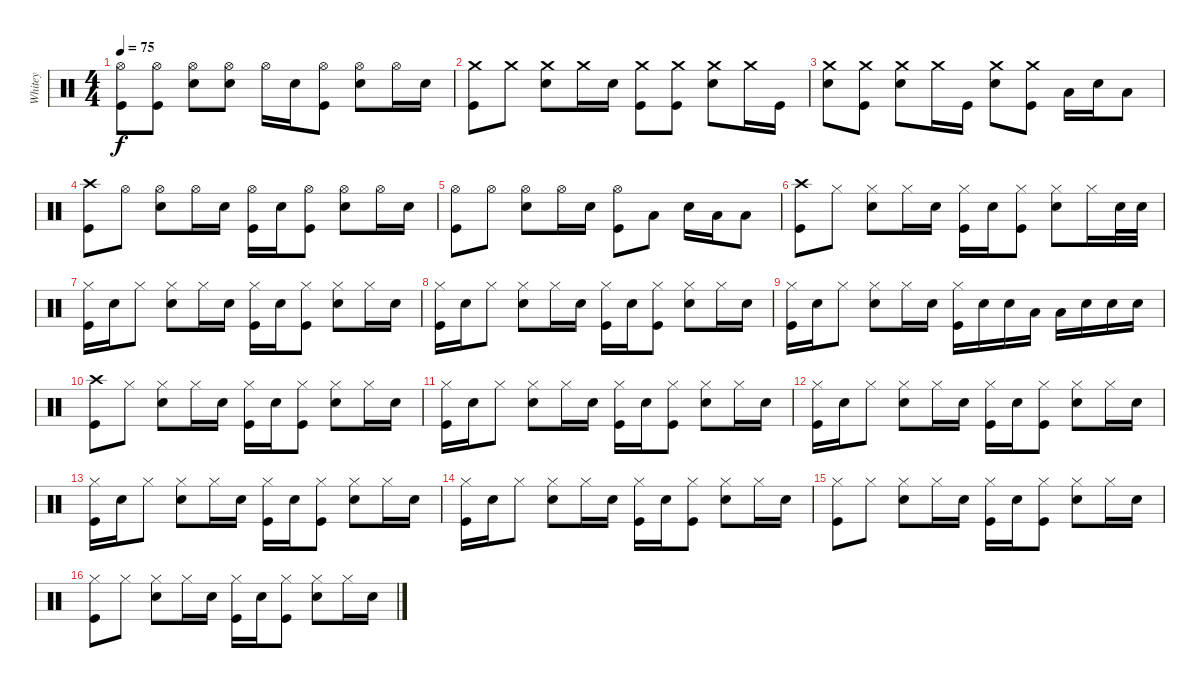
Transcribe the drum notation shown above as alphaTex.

\track ("Whitey" "Whitey") {instrument percussion}
\staff {score}
\articulation defaults
\ts (4 4)
\tempo 75
\clef neutral
\ks c
("Hi-Hat (open)" "Kick (hit)").8{dy f} ("Hi-Hat (open)" "Kick (hit)").8 ("Hi-Hat (open)" "Snare (hit) 2").8 ("Hi-Hat (open)" "Snare (hit) 2").8 "Hi-Hat (open)".16 "Snare (hit) 2".16 ("Hi-Hat (open)" "Kick (hit)").8 ("Hi-Hat (open)" "Snare (hit) 2").8 "Hi-Hat (open)".16 "Snare (hit) 2".16 |
("Crash medium (hit)" "Kick (hit)").8 "Crash medium (hit)".8 ("Crash medium (hit)" "Snare (hit) 2").8 "Crash medium (hit)".16 "Snare (hit) 2".16 ("Crash medium (hit)" "Kick (hit)").8 ("Crash medium (hit)" "Kick (hit)").8 ("Crash medium (hit)" "Snare (hit) 2").8 "Crash medium (hit)".16 "Kick (hit)".16 |
("Crash medium (hit)" "Snare (hit) 2").8 ("Crash medium (hit)" "Kick (hit)").8 ("Crash medium (hit)" "Snare (hit) 2").8 "Crash medium (hit)".16 "Kick (hit)".16 ("Crash medium (hit)" "Snare (hit) 2").8 ("Crash medium (hit)" "Kick (hit)").8 "Low Tom (hit)".16 "Snare (hit) 2".16 "Low Tom (hit)".8 |
("Crash high (hit)" "Kick (hit)").8 "Hi-Hat (open)".8 ("Hi-Hat (open)" "Snare (hit) 2").8 "Hi-Hat (open)".16 "Snare (hit) 2".16 ("Hi-Hat (open)" "Kick (hit)").16 "Snare (hit) 2".16 ("Hi-Hat (open)" "Kick (hit)").8 ("Hi-Hat (open)" "Snare (hit) 2").8 "Hi-Hat (open)".16 "Snare (hit) 2".16 |
("Hi-Hat (open)" "Kick (hit)").8 "Hi-Hat (open)".8 ("Hi-Hat (open)" "Snare (hit) 2").8 "Hi-Hat (open)".16 "Snare (hit) 2".16 ("Hi-Hat (open)" "Kick (hit)").8 "Low Tom (hit)".8 "Snare (hit) 2".16 "Low Tom (hit)".16 "Low Tom (hit)".8 |
("Crash high (hit)" "Kick (hit)").8 "Hi-Hat (closed)".8 ("Hi-Hat (closed)" "Snare (hit) 2").8 "Hi-Hat (closed)".16 "Snare (hit) 2".16 ("Hi-Hat (closed)" "Kick (hit)").16 "Snare (hit) 2".16 ("Hi-Hat (closed)" "Kick (hit)").8 ("Hi-Hat (closed)" "Snare (hit) 2").8 "Hi-Hat (closed)".16 "Snare (hit) 2".32 "Snare (hit) 2".32 |
("Hi-Hat (closed)" "Kick (hit)").16 "Snare (hit) 2".16 "Hi-Hat (closed)".8 ("Hi-Hat (closed)" "Snare (hit) 2").8 "Hi-Hat (closed)".16 "Snare (hit) 2".16 ("Hi-Hat (closed)" "Kick (hit)").16 "Snare (hit) 2".16 ("Hi-Hat (closed)" "Kick (hit)").8 ("Hi-Hat (closed)" "Snare (hit) 2").8 "Hi-Hat (closed)".16 "Snare (hit) 2".16 |
("Hi-Hat (closed)" "Kick (hit)").16 "Snare (hit) 2".16 "Hi-Hat (closed)".8 ("Hi-Hat (closed)" "Snare (hit) 2").8 "Hi-Hat (closed)".16 "Snare (hit) 2".16 ("Hi-Hat (closed)" "Kick (hit)").16 "Snare (hit) 2".16 ("Hi-Hat (closed)" "Kick (hit)").8 ("Hi-Hat (closed)" "Snare (hit) 2").8 "Hi-Hat (closed)".16 "Snare (hit) 2".16 |
("Hi-Hat (closed)" "Kick (hit)").16 "Snare (hit) 2".16 "Hi-Hat (closed)".8 ("Hi-Hat (closed)" "Snare (hit) 2").8 "Hi-Hat (closed)".16 "Snare (hit) 2".16 ("Hi-Hat (closed)" "Kick (hit)").16 "Snare (hit) 2".16 "Snare (hit) 2".16 "Low Tom (hit)".16 "Low Tom (hit)".16 "Snare (hit) 2".16 "Snare (hit) 2".16 "Snare (hit) 2".16 |
("Crash high (hit)" "Kick (hit)").8 "Hi-Hat (closed)".8 ("Hi-Hat (closed)" "Snare (hit) 2").8 "Hi-Hat (closed)".16 "Snare (hit) 2".16 ("Hi-Hat (closed)" "Kick (hit)").16 "Snare (hit) 2".16 ("Hi-Hat (closed)" "Kick (hit)").8 ("Hi-Hat (closed)" "Snare (hit) 2").8 "Hi-Hat (closed)".16 "Snare (hit) 2".16 |
("Hi-Hat (closed)" "Kick (hit)").16 "Snare (hit) 2".16 "Hi-Hat (closed)".8 ("Hi-Hat (closed)" "Snare (hit) 2").8 "Hi-Hat (closed)".16 "Snare (hit) 2".16 ("Hi-Hat (closed)" "Kick (hit)").16 "Snare (hit) 2".16 ("Hi-Hat (closed)" "Kick (hit)").8 ("Hi-Hat (closed)" "Snare (hit) 2").8 "Hi-Hat (closed)".16 "Snare (hit) 2".16 |
("Hi-Hat (closed)" "Kick (hit)").16 "Snare (hit) 2".16 "Hi-Hat (closed)".8 ("Hi-Hat (closed)" "Snare (hit) 2").8 "Hi-Hat (closed)".16 "Snare (hit) 2".16 ("Hi-Hat (closed)" "Kick (hit)").16 "Snare (hit) 2".16 ("Hi-Hat (closed)" "Kick (hit)").8 ("Hi-Hat (closed)" "Snare (hit) 2").8 "Hi-Hat (closed)".16 "Snare (hit) 2".16 |
("Hi-Hat (closed)" "Kick (hit)").16 "Snare (hit) 2".16 "Hi-Hat (closed)".8 ("Hi-Hat (closed)" "Snare (hit) 2").8 "Hi-Hat (closed)".16 "Snare (hit) 2".16 ("Hi-Hat (closed)" "Kick (hit)").16 "Snare (hit) 2".16 ("Hi-Hat (closed)" "Kick (hit)").8 ("Hi-Hat (closed)" "Snare (hit) 2").8 "Hi-Hat (closed)".16 "Snare (hit) 2".16 |
("Hi-Hat (closed)" "Kick (hit)").16 "Snare (hit) 2".16 "Hi-Hat (closed)".8 ("Hi-Hat (closed)" "Snare (hit) 2").8 "Hi-Hat (closed)".16 "Snare (hit) 2".16 ("Hi-Hat (closed)" "Kick (hit)").16 "Snare (hit) 2".16 ("Hi-Hat (closed)" "Kick (hit)").8 ("Hi-Hat (closed)" "Snare (hit) 2").8 "Hi-Hat (closed)".16 "Snare (hit) 2".16 |
("Hi-Hat (closed)" "Kick (hit)").8 "Hi-Hat (closed)".8 ("Hi-Hat (closed)" "Snare (hit) 2").8 "Hi-Hat (closed)".16 "Snare (hit) 2".16 ("Hi-Hat (closed)" "Kick (hit)").16 "Snare (hit) 2".16 ("Hi-Hat (closed)" "Kick (hit)").8 ("Hi-Hat (closed)" "Snare (hit) 2").8 "Hi-Hat (closed)".16 "Snare (hit) 2".16 |
("Hi-Hat (closed)" "Kick (hit)").8 "Hi-Hat (closed)".8 ("Hi-Hat (closed)" "Snare (hit) 2").8 "Hi-Hat (closed)".16 "Snare (hit) 2".16 ("Hi-Hat (closed)" "Kick (hit)").16 "Snare (hit) 2".16 ("Hi-Hat (closed)" "Kick (hit)").8 ("Hi-Hat (closed)" "Snare (hit) 2").8 "Hi-Hat (closed)".16 "Snare (hit) 2".16
